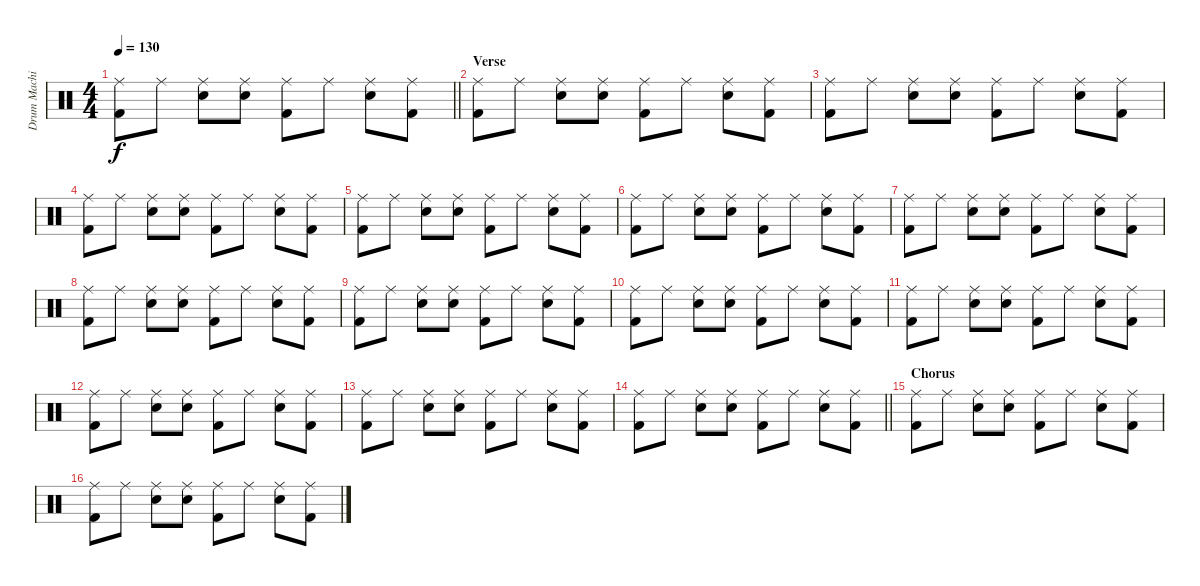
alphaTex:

\track ("Drum Machine" "Drum Machi") {instrument percussion}
\staff {score}
\articulation defaults
\ts (4 4)
\tempo 130
\clef neutral
\barLineRight lightlight
\ks c
("Ride (middle)" "Kick (hit) 2").8{dy f} "Ride (middle)".8 ("Ride (middle)" "Snare (hit) 2").8 ("Ride (middle)" "Snare (hit) 2").8 ("Ride (middle)" "Kick (hit) 2").8 "Ride (middle)".8 ("Ride (middle)" "Snare (hit) 2").8 ("Ride (middle)" "Kick (hit) 2").8 |
\section ("" "Verse")
("Ride (middle)" "Kick (hit) 2").8 "Ride (middle)".8 ("Ride (middle)" "Snare (hit) 2").8 ("Ride (middle)" "Snare (hit) 2").8 ("Ride (middle)" "Kick (hit) 2").8 "Ride (middle)".8 ("Ride (middle)" "Snare (hit) 2").8 ("Ride (middle)" "Kick (hit) 2").8 |
("Ride (middle)" "Kick (hit) 2").8 "Ride (middle)".8 ("Ride (middle)" "Snare (hit) 2").8 ("Ride (middle)" "Snare (hit) 2").8 ("Ride (middle)" "Kick (hit) 2").8 "Ride (middle)".8 ("Ride (middle)" "Snare (hit) 2").8 ("Ride (middle)" "Kick (hit) 2").8 |
("Ride (middle)" "Kick (hit) 2").8 "Ride (middle)".8 ("Ride (middle)" "Snare (hit) 2").8 ("Ride (middle)" "Snare (hit) 2").8 ("Ride (middle)" "Kick (hit) 2").8 "Ride (middle)".8 ("Ride (middle)" "Snare (hit) 2").8 ("Ride (middle)" "Kick (hit) 2").8 |
("Ride (middle)" "Kick (hit) 2").8 "Ride (middle)".8 ("Ride (middle)" "Snare (hit) 2").8 ("Ride (middle)" "Snare (hit) 2").8 ("Ride (middle)" "Kick (hit) 2").8 "Ride (middle)".8 ("Ride (middle)" "Snare (hit) 2").8 ("Ride (middle)" "Kick (hit) 2").8 |
("Ride (middle)" "Kick (hit) 2").8 "Ride (middle)".8 ("Ride (middle)" "Snare (hit) 2").8 ("Ride (middle)" "Snare (hit) 2").8 ("Ride (middle)" "Kick (hit) 2").8 "Ride (middle)".8 ("Ride (middle)" "Snare (hit) 2").8 ("Ride (middle)" "Kick (hit) 2").8 |
("Ride (middle)" "Kick (hit) 2").8 "Ride (middle)".8 ("Ride (middle)" "Snare (hit) 2").8 ("Ride (middle)" "Snare (hit) 2").8 ("Ride (middle)" "Kick (hit) 2").8 "Ride (middle)".8 ("Ride (middle)" "Snare (hit) 2").8 ("Ride (middle)" "Kick (hit) 2").8 |
("Ride (middle)" "Kick (hit) 2").8 "Ride (middle)".8 ("Ride (middle)" "Snare (hit) 2").8 ("Ride (middle)" "Snare (hit) 2").8 ("Ride (middle)" "Kick (hit) 2").8 "Ride (middle)".8 ("Ride (middle)" "Snare (hit) 2").8 ("Ride (middle)" "Kick (hit) 2").8 |
("Ride (middle)" "Kick (hit) 2").8 "Ride (middle)".8 ("Ride (middle)" "Snare (hit) 2").8 ("Ride (middle)" "Snare (hit) 2").8 ("Ride (middle)" "Kick (hit) 2").8 "Ride (middle)".8 ("Ride (middle)" "Snare (hit) 2").8 ("Ride (middle)" "Kick (hit) 2").8 |
("Ride (middle)" "Kick (hit) 2").8 "Ride (middle)".8 ("Ride (middle)" "Snare (hit) 2").8 ("Ride (middle)" "Snare (hit) 2").8 ("Ride (middle)" "Kick (hit) 2").8 "Ride (middle)".8 ("Ride (middle)" "Snare (hit) 2").8 ("Ride (middle)" "Kick (hit) 2").8 |
("Ride (middle)" "Kick (hit) 2").8 "Ride (middle)".8 ("Ride (middle)" "Snare (hit) 2").8 ("Ride (middle)" "Snare (hit) 2").8 ("Ride (middle)" "Kick (hit) 2").8 "Ride (middle)".8 ("Ride (middle)" "Snare (hit) 2").8 ("Ride (middle)" "Kick (hit) 2").8 |
("Ride (middle)" "Kick (hit) 2").8 "Ride (middle)".8 ("Ride (middle)" "Snare (hit) 2").8 ("Ride (middle)" "Snare (hit) 2").8 ("Ride (middle)" "Kick (hit) 2").8 "Ride (middle)".8 ("Ride (middle)" "Snare (hit) 2").8 ("Ride (middle)" "Kick (hit) 2").8 |
("Ride (middle)" "Kick (hit) 2").8 "Ride (middle)".8 ("Ride (middle)" "Snare (hit) 2").8 ("Ride (middle)" "Snare (hit) 2").8 ("Ride (middle)" "Kick (hit) 2").8 "Ride (middle)".8 ("Ride (middle)" "Snare (hit) 2").8 ("Ride (middle)" "Kick (hit) 2").8 |
\barLineRight lightlight
("Ride (middle)" "Kick (hit) 2").8 "Ride (middle)".8 ("Ride (middle)" "Snare (hit) 2").8 ("Ride (middle)" "Snare (hit) 2").8 ("Ride (middle)" "Kick (hit) 2").8 "Ride (middle)".8 ("Ride (middle)" "Snare (hit) 2").8 ("Ride (middle)" "Kick (hit) 2").8 |
\section ("" "Chorus")
("Ride (middle)" "Kick (hit) 2").8 "Ride (middle)".8 ("Ride (middle)" "Snare (hit) 2").8 ("Ride (middle)" "Snare (hit) 2").8 ("Ride (middle)" "Kick (hit) 2").8 "Ride (middle)".8 ("Ride (middle)" "Snare (hit) 2").8 ("Ride (middle)" "Kick (hit) 2").8 |
("Ride (middle)" "Kick (hit) 2").8 "Ride (middle)".8 ("Ride (middle)" "Snare (hit) 2").8 ("Ride (middle)" "Snare (hit) 2").8 ("Ride (middle)" "Kick (hit) 2").8 "Ride (middle)".8 ("Ride (middle)" "Snare (hit) 2").8 ("Ride (middle)" "Kick (hit) 2").8
